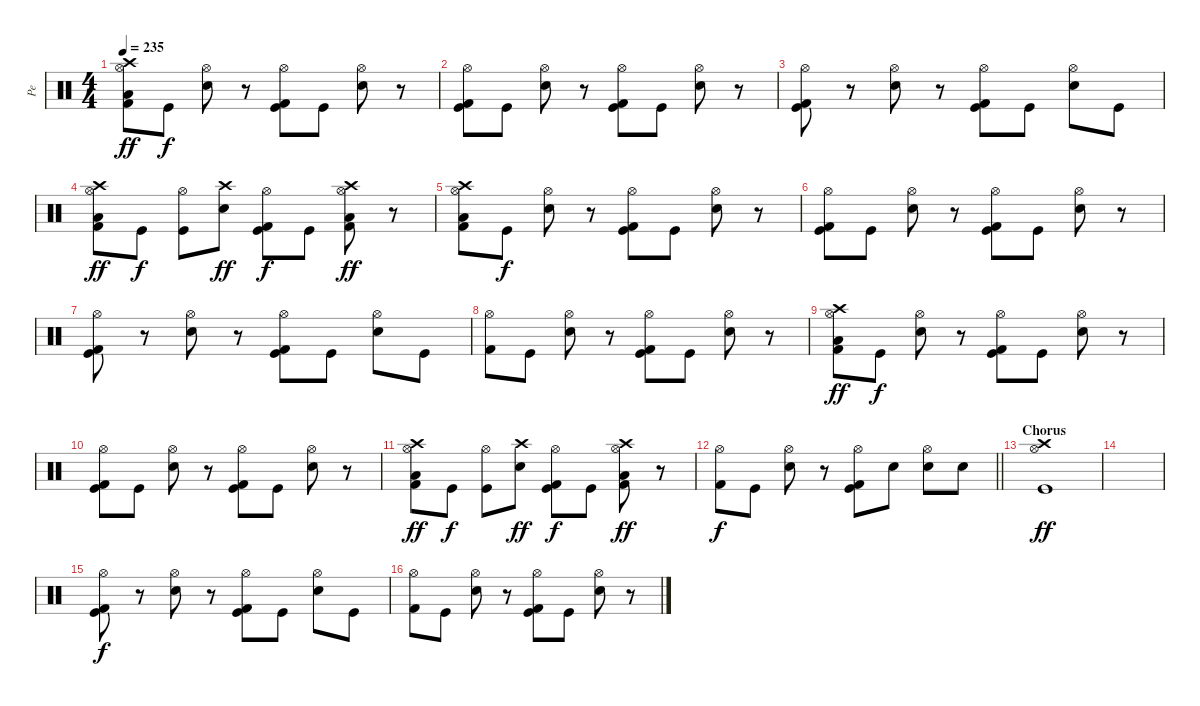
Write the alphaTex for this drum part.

\track ("Pe" "Pe") {instrument percussion}
\staff {score}
\articulation defaults
\ts (4 4)
\tempo 235
\clef neutral
\ks c
("Low Tom (hit)" "Hi-Hat (open)" "Kick (hit) 2" "Crash high (hit)").8{dy ff} "Kick (hit)".8{dy f} ("Electric Snare (hit)" "Hi-Hat (open)").8 r.8 ("Kick (hit)" "Hi-Hat (open)" "Kick (hit) 2").8 "Kick (hit)".8 ("Electric Snare (hit)" "Hi-Hat (open)").8 r.8 |
("Kick (hit)" "Hi-Hat (open)" "Kick (hit) 2").8 "Kick (hit)".8 ("Electric Snare (hit)" "Hi-Hat (open)").8 r.8 ("Kick (hit)" "Hi-Hat (open)" "Kick (hit) 2").8 "Kick (hit)".8 ("Electric Snare (hit)" "Hi-Hat (open)").8 r.8 |
("Kick (hit)" "Hi-Hat (open)" "Kick (hit) 2").8 r.8 ("Electric Snare (hit)" "Hi-Hat (open)").8 r.8 ("Kick (hit)" "Hi-Hat (open)" "Kick (hit) 2").8 "Kick (hit)".8 ("Electric Snare (hit)" "Hi-Hat (open)").8 "Kick (hit)".8 |
("Low Tom (hit)" "Hi-Hat (open)" "Kick (hit) 2" "Crash high (hit)").8{dy ff} "Kick (hit)".8{dy f} ("Kick (hit)" "Hi-Hat (open)").8 ("Crash high (hit)" "Electric Snare (hit)").8{dy ff} ("Kick (hit)" "Hi-Hat (open)" "Kick (hit) 2").8{dy f} "Kick (hit)".8 ("Low Tom (hit)" "Hi-Hat (open)" "Kick (hit) 2" "Crash high (hit)").8{dy ff} r.8 |
("Low Tom (hit)" "Hi-Hat (open)" "Kick (hit) 2" "Crash high (hit)").8 "Kick (hit)".8{dy f} ("Electric Snare (hit)" "Hi-Hat (open)").8 r.8 ("Kick (hit)" "Hi-Hat (open)" "Kick (hit) 2").8 "Kick (hit)".8 ("Electric Snare (hit)" "Hi-Hat (open)").8 r.8 |
("Kick (hit)" "Hi-Hat (open)" "Kick (hit) 2").8 "Kick (hit)".8 ("Electric Snare (hit)" "Hi-Hat (open)").8 r.8 ("Kick (hit)" "Hi-Hat (open)" "Kick (hit) 2").8 "Kick (hit)".8 ("Electric Snare (hit)" "Hi-Hat (open)").8 r.8 |
("Kick (hit)" "Hi-Hat (open)" "Kick (hit) 2").8 r.8 ("Electric Snare (hit)" "Hi-Hat (open)").8 r.8 ("Kick (hit)" "Hi-Hat (open)" "Kick (hit) 2").8 "Kick (hit)".8 ("Electric Snare (hit)" "Hi-Hat (open)").8 "Kick (hit)".8 |
("Hi-Hat (open)" "Kick (hit) 2").8 "Kick (hit)".8 ("Electric Snare (hit)" "Hi-Hat (open)").8 r.8 ("Kick (hit)" "Hi-Hat (open)" "Kick (hit) 2").8 "Kick (hit)".8 ("Electric Snare (hit)" "Hi-Hat (open)").8 r.8 |
("Low Tom (hit)" "Hi-Hat (open)" "Kick (hit) 2" "Crash high (hit)").8{dy ff} "Kick (hit)".8{dy f} ("Electric Snare (hit)" "Hi-Hat (open)").8 r.8 ("Kick (hit)" "Hi-Hat (open)" "Kick (hit) 2").8 "Kick (hit)".8 ("Electric Snare (hit)" "Hi-Hat (open)").8 r.8 |
("Kick (hit)" "Hi-Hat (open)" "Kick (hit) 2").8 "Kick (hit)".8 ("Electric Snare (hit)" "Hi-Hat (open)").8 r.8 ("Kick (hit)" "Hi-Hat (open)" "Kick (hit) 2").8 "Kick (hit)".8 ("Electric Snare (hit)" "Hi-Hat (open)").8 r.8 |
("Low Tom (hit)" "Hi-Hat (open)" "Kick (hit) 2" "Crash high (hit)").8{dy ff} "Kick (hit)".8{dy f} ("Kick (hit)" "Hi-Hat (open)").8 ("Crash high (hit)" "Electric Snare (hit)").8{dy ff} ("Kick (hit)" "Hi-Hat (open)" "Kick (hit) 2").8{dy f} "Kick (hit)".8 ("Low Tom (hit)" "Hi-Hat (open)" "Kick (hit) 2" "Crash high (hit)").8{dy ff} r.8 |
\barLineRight lightlight
("Hi-Hat (open)" "Kick (hit) 2").8{dy f} "Kick (hit)".8 ("Electric Snare (hit)" "Hi-Hat (open)").8 r.8 ("Kick (hit)" "Hi-Hat (open)" "Kick (hit) 2").8 "Electric Snare (hit)".8 ("Electric Snare (hit)" "Hi-Hat (open)").8 "Electric Snare (hit)".8 |
\section ("" "Chorus")
("Crash high (hit)" "Kick (hit)" "Hi-Hat (open)").1{dy ff} |
|
("Kick (hit)" "Hi-Hat (open)" "Kick (hit) 2").8{dy f} r.8 ("Electric Snare (hit)" "Hi-Hat (open)").8 r.8 ("Kick (hit)" "Hi-Hat (open)" "Kick (hit) 2").8 "Kick (hit)".8 ("Electric Snare (hit)" "Hi-Hat (open)").8 "Kick (hit)".8 |
("Hi-Hat (open)" "Kick (hit) 2").8 "Kick (hit)".8 ("Electric Snare (hit)" "Hi-Hat (open)").8 r.8 ("Kick (hit)" "Hi-Hat (open)" "Kick (hit) 2").8 "Kick (hit)".8 ("Electric Snare (hit)" "Hi-Hat (open)").8 r.8
